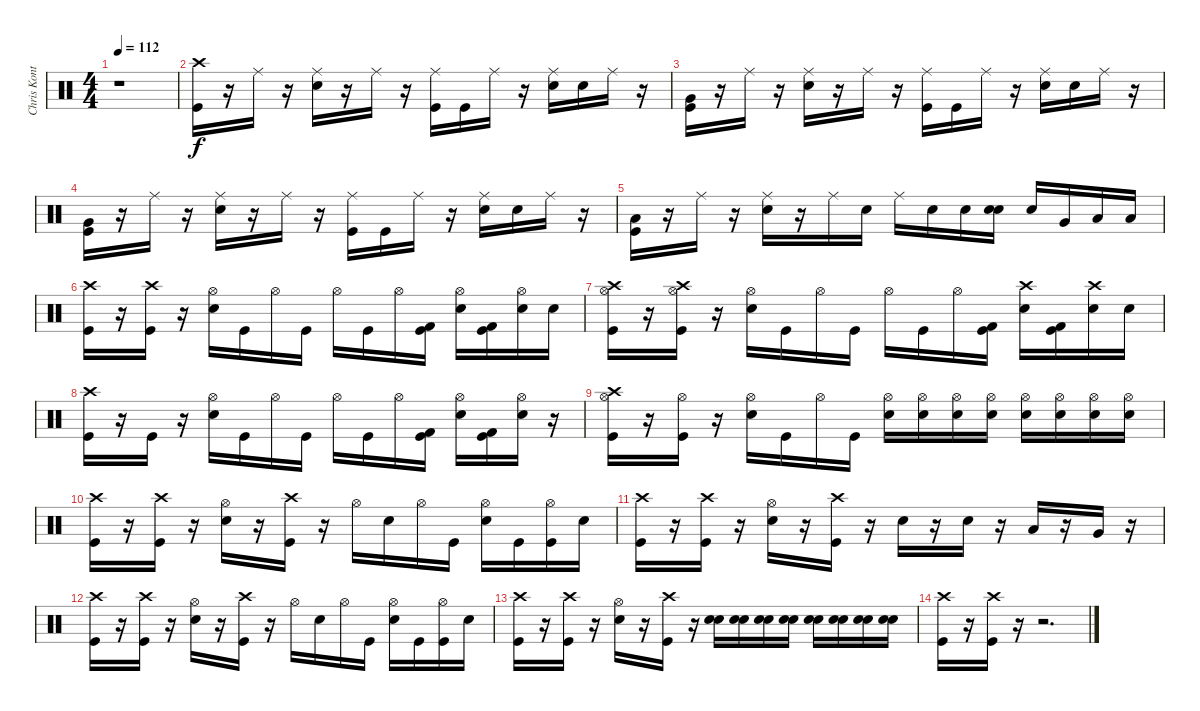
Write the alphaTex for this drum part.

\track ("Chris Kontos - Drums" "Chris Kont") {instrument percussion}
\staff {score}
\articulation defaults
\ts (4 4)
\tempo 112
\clef neutral
\ks c
r.1{dy f} |
("Crash high (hit)" "Kick (hit)").16 r.16 "Ride (middle)".16 r.16 ("Ride (middle)" "Snare (hit) 2").16 r.16 "Ride (middle)".16 r.16 ("Ride (middle)" "Kick (hit)").16 "Kick (hit)".16 "Ride (middle)".16 r.16 ("Ride (middle)" "Snare (hit) 2").16 "Snare (hit) 2".16 "Ride (middle)".16 r.16 |
("Very Low Tom (hit)" "Kick (hit)").16 r.16 "Ride (middle)".16 r.16 ("Ride (middle)" "Snare (hit) 2").16 r.16 "Ride (middle)".16 r.16 ("Ride (middle)" "Kick (hit)").16 "Kick (hit)".16 "Ride (middle)".16 r.16 ("Ride (middle)" "Snare (hit) 2").16 "Snare (hit) 2".16 "Ride (middle)".16 r.16 |
("Very Low Tom (hit)" "Kick (hit)").16 r.16 "Ride (middle)".16 r.16 ("Ride (middle)" "Snare (hit) 2").16 r.16 "Ride (middle)".16 r.16 ("Ride (middle)" "Kick (hit)").16 "Kick (hit)".16 "Ride (middle)".16 r.16 ("Ride (middle)" "Snare (hit) 2").16 "Snare (hit) 2".16 "Ride (middle)".16 r.16 |
("Low Tom (hit)" "Kick (hit)").16 r.16 "Ride (middle)".16 r.16 ("Ride (middle)" "Snare (hit) 2").16 r.16 "Ride (middle)".16 "Snare (hit) 2".16 "Ride (middle)".16 "Snare (hit) 2".16 "Snare (hit) 2".16 ("Snare (hit) 2" "Snare (hit) 2").16 "Snare (hit) 2".16 "Very Low Tom (hit)".16 "Low Floor Tom (hit)".16 "Low Floor Tom (hit)".16 |
("Crash high (hit)" "Kick (hit)").16 r.16 ("Crash high (hit)" "Kick (hit)").16 r.16 ("Hi-Hat (open)" "Snare (hit) 2").16 "Kick (hit)".16 "Hi-Hat (open)".16 "Kick (hit)".16 "Hi-Hat (open)".16 "Kick (hit)".16 "Hi-Hat (open)".16 ("Kick (hit) 2" "Kick (hit)").16 ("Hi-Hat (open)" "Snare (hit) 2").16 ("Kick (hit)" "Kick (hit) 2").16 ("Hi-Hat (open)" "Snare (hit) 2").16 "Snare (hit) 2".16 |
("Crash high (hit)" "Hi-Hat (open)" "Kick (hit)").16 r.16 ("Crash high (hit)" "Hi-Hat (open)" "Kick (hit)").16 r.16 ("Hi-Hat (open)" "Snare (hit) 2").16 "Kick (hit)".16 "Hi-Hat (open)".16 "Kick (hit)".16 "Hi-Hat (open)".16 "Kick (hit)".16 "Hi-Hat (open)".16 ("Kick (hit) 2" "Kick (hit)").16 ("Crash high (hit)" "Snare (hit) 2").16 ("Kick (hit) 2" "Kick (hit)").16 ("Crash high (hit)" "Snare (hit) 2").16 "Snare (hit) 2".16 |
("Crash high (hit)" "Kick (hit)").16 r.16 "Kick (hit)".16 r.16 ("Hi-Hat (open)" "Snare (hit) 2").16 "Kick (hit)".16 "Hi-Hat (open)".16 "Kick (hit)".16 "Hi-Hat (open)".16 "Kick (hit)".16 "Hi-Hat (open)".16 ("Kick (hit) 2" "Kick (hit)").16 ("Hi-Hat (open)" "Snare (hit) 2").16 ("Kick (hit) 2" "Kick (hit)").16 ("Hi-Hat (open)" "Snare (hit) 2").16 r.16 |
("Crash high (hit)" "Hi-Hat (open)" "Kick (hit)").16 r.16 ("Hi-Hat (open)" "Kick (hit)").16 r.16 ("Hi-Hat (open)" "Snare (hit) 2").16 "Kick (hit)".16 "Hi-Hat (open)".16 "Kick (hit)".16 ("Hi-Hat (open)" "Snare (hit) 2").16 ("Hi-Hat (open)" "Snare (hit) 2").16 ("Hi-Hat (open)" "Snare (hit) 2").16 ("Hi-Hat (open)" "Snare (hit) 2").16 ("Hi-Hat (open)" "Snare (hit) 2").16 ("Hi-Hat (open)" "Snare (hit) 2").16 ("Hi-Hat (open)" "Snare (hit) 2").16 ("Hi-Hat (open)" "Snare (hit) 2").16 |
("Crash high (hit)" "Kick (hit)").16 r.16 ("Crash high (hit)" "Kick (hit)").16 r.16 ("Hi-Hat (open)" "Snare (hit) 2").16 r.16 ("Crash high (hit)" "Kick (hit)").16 r.16 "Hi-Hat (open)".16 "Snare (hit) 2".16 "Hi-Hat (open)".16 "Kick (hit)".16 ("Hi-Hat (open)" "Snare (hit) 2").16 "Kick (hit)".16 ("Hi-Hat (open)" "Kick (hit)").16 "Snare (hit) 2".16 |
("Crash high (hit)" "Kick (hit)").16 r.16 ("Crash high (hit)" "Kick (hit)").16 r.16 ("Hi-Hat (open)" "Snare (hit) 2").16 r.16 ("Crash high (hit)" "Kick (hit)").16 r.16 "Snare (hit) 2".16 r.16 "Snare (hit) 2".16 r.16 "Low Tom (hit)".16 r.16 "Very Low Tom (hit)".16 r.16 |
("Crash high (hit)" "Kick (hit)").16 r.16 ("Crash high (hit)" "Kick (hit)").16 r.16 ("Hi-Hat (open)" "Snare (hit) 2").16 r.16 ("Crash high (hit)" "Kick (hit)").16 r.16 "Hi-Hat (open)".16 "Snare (hit) 2".16 "Hi-Hat (open)".16 "Kick (hit)".16 ("Hi-Hat (open)" "Snare (hit) 2").16 "Kick (hit)".16 ("Hi-Hat (open)" "Kick (hit)").16 "Snare (hit) 2".16 |
("Crash high (hit)" "Kick (hit)").16 r.16 ("Crash high (hit)" "Kick (hit)").16 r.16 ("Hi-Hat (open)" "Snare (hit) 2").16 r.16 ("Crash high (hit)" "Kick (hit)").16 r.16 ("Snare (hit) 2" "Snare (hit) 2").16 ("Snare (hit) 2" "Snare (hit) 2").16 ("Snare (hit) 2" "Snare (hit) 2").16 ("Snare (hit) 2" "Snare (hit) 2").16 ("Snare (hit) 2" "Snare (hit) 2").16 ("Snare (hit) 2" "Snare (hit) 2").16 ("Snare (hit) 2" "Snare (hit) 2").16 ("Snare (hit) 2" "Snare (hit) 2").16 |
("Crash high (hit)" "Kick (hit)").16 r.16 ("Crash high (hit)" "Kick (hit)").16 r.16 r.2{d}
